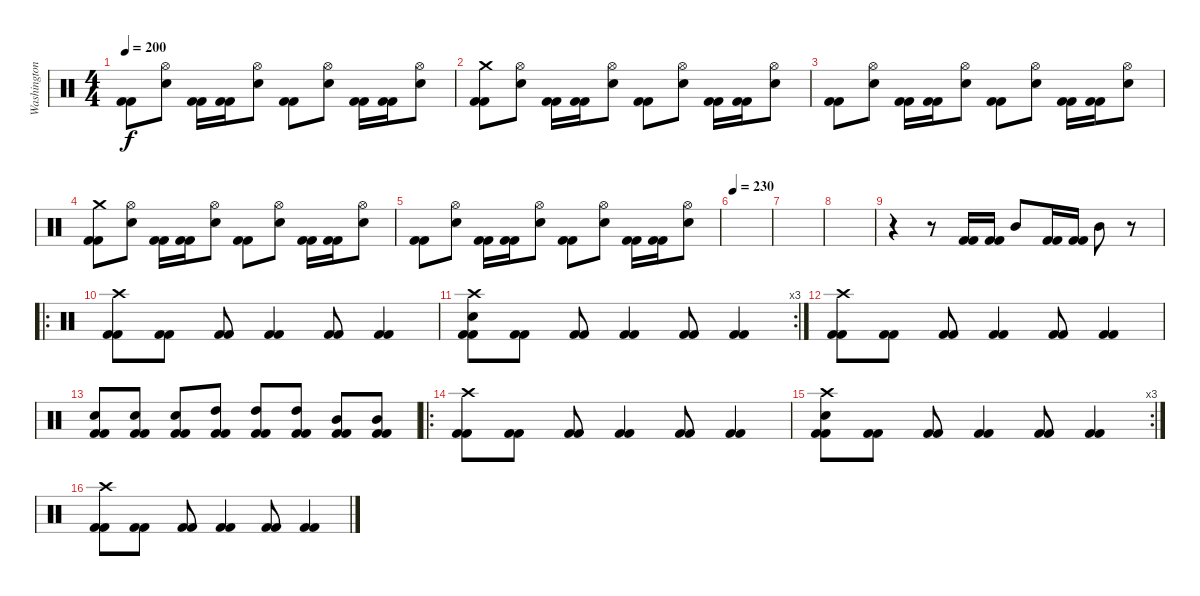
\track ("Washington" "Washington") {solo instrument percussion}
\staff {score}
\articulation defaults
\ts (4 4)
\tempo 200
\clef neutral
\ks c
("Kick (hit) 2" "Kick (hit) 2").8{dy f} ("Hi-Hat (open)" "Electric Snare (hit)").8 ("Kick (hit) 2" "Kick (hit) 2").16 ("Kick (hit) 2" "Kick (hit) 2").16 ("Hi-Hat (open)" "Electric Snare (hit)").8 ("Kick (hit) 2" "Kick (hit) 2").8 ("Hi-Hat (open)" "Electric Snare (hit)").8 ("Kick (hit) 2" "Kick (hit) 2").16 ("Kick (hit) 2" "Kick (hit) 2").16 ("Hi-Hat (open)" "Electric Snare (hit)").8 |
("Crash medium (hit)" "Kick (hit) 2" "Kick (hit) 2").8 ("Hi-Hat (open)" "Electric Snare (hit)").8 ("Kick (hit) 2" "Kick (hit) 2").16 ("Kick (hit) 2" "Kick (hit) 2").16 ("Hi-Hat (open)" "Electric Snare (hit)").8 ("Kick (hit) 2" "Kick (hit) 2").8 ("Hi-Hat (open)" "Electric Snare (hit)").8 ("Kick (hit) 2" "Kick (hit) 2").16 ("Kick (hit) 2" "Kick (hit) 2").16 ("Hi-Hat (open)" "Electric Snare (hit)").8 |
("Kick (hit) 2" "Kick (hit) 2").8 ("Hi-Hat (open)" "Electric Snare (hit)").8 ("Kick (hit) 2" "Kick (hit) 2").16 ("Kick (hit) 2" "Kick (hit) 2").16 ("Hi-Hat (open)" "Electric Snare (hit)").8 ("Kick (hit) 2" "Kick (hit) 2").8 ("Hi-Hat (open)" "Electric Snare (hit)").8 ("Kick (hit) 2" "Kick (hit) 2").16 ("Kick (hit) 2" "Kick (hit) 2").16 ("Hi-Hat (open)" "Electric Snare (hit)").8 |
("Crash medium (hit)" "Kick (hit) 2" "Kick (hit) 2").8 ("Hi-Hat (open)" "Electric Snare (hit)").8 ("Kick (hit) 2" "Kick (hit) 2").16 ("Kick (hit) 2" "Kick (hit) 2").16 ("Hi-Hat (open)" "Electric Snare (hit)").8 ("Kick (hit) 2" "Kick (hit) 2").8 ("Hi-Hat (open)" "Electric Snare (hit)").8 ("Kick (hit) 2" "Kick (hit) 2").16 ("Kick (hit) 2" "Kick (hit) 2").16 ("Hi-Hat (open)" "Electric Snare (hit)").8 |
("Kick (hit) 2" "Kick (hit) 2").8 ("Hi-Hat (open)" "Electric Snare (hit)").8 ("Kick (hit) 2" "Kick (hit) 2").16 ("Kick (hit) 2" "Kick (hit) 2").16 ("Hi-Hat (open)" "Electric Snare (hit)").8 ("Kick (hit) 2" "Kick (hit) 2").8 ("Hi-Hat (open)" "Electric Snare (hit)").8 ("Kick (hit) 2" "Kick (hit) 2").16 ("Kick (hit) 2" "Kick (hit) 2").16 ("Hi-Hat (open)" "Electric Snare (hit)").8 |
\tempo 230
|
|
|
r.4 r.8 ("Kick (hit) 2" "Kick (hit) 2").16 ("Kick (hit) 2" "Kick (hit) 2").16 "Mid Tom (hit)".8 ("Kick (hit) 2" "Kick (hit) 2").16 ("Kick (hit) 2" "Kick (hit) 2").16 "Mid Tom (hit)".8 r.8 |
\ro
("Crash high (hit)" "Kick (hit) 2" "Kick (hit) 2").8 ("Kick (hit) 2" "Kick (hit) 2").8 ("Kick (hit) 2" "Kick (hit) 2").8 ("Kick (hit) 2" "Kick (hit) 2").4 ("Kick (hit) 2" "Kick (hit) 2").8 ("Kick (hit) 2" "Kick (hit) 2").4 |
\rc 3
("Crash high (hit)" "Electric Snare (hit)" "Kick (hit) 2" "Kick (hit) 2").8 ("Kick (hit) 2" "Kick (hit) 2").8 ("Kick (hit) 2" "Kick (hit) 2").8 ("Kick (hit) 2" "Kick (hit) 2").4 ("Kick (hit) 2" "Kick (hit) 2").8 ("Kick (hit) 2" "Kick (hit) 2").4 |
("Crash high (hit)" "Kick (hit) 2" "Kick (hit) 2").8 ("Kick (hit) 2" "Kick (hit) 2").8 ("Kick (hit) 2" "Kick (hit) 2").8 ("Kick (hit) 2" "Kick (hit) 2").4 ("Kick (hit) 2" "Kick (hit) 2").8 ("Kick (hit) 2" "Kick (hit) 2").4 |
("Electric Snare (hit)" "Kick (hit) 2" "Kick (hit) 2").8 ("Electric Snare (hit)" "Kick (hit) 2" "Kick (hit) 2").8 ("Electric Snare (hit)" "Kick (hit) 2" "Kick (hit) 2").8 ("High Tom (hit)" "Kick (hit) 2" "Kick (hit) 2").8 ("High Tom (hit)" "Kick (hit) 2" "Kick (hit) 2").8 ("High Tom (hit)" "Kick (hit) 2" "Kick (hit) 2").8 ("Mid Tom (hit)" "Kick (hit) 2" "Kick (hit) 2").8 ("Mid Tom (hit)" "Kick (hit) 2" "Kick (hit) 2").8 |
\ro
("Crash high (hit)" "Kick (hit) 2" "Kick (hit) 2").8 ("Kick (hit) 2" "Kick (hit) 2").8 ("Kick (hit) 2" "Kick (hit) 2").8 ("Kick (hit) 2" "Kick (hit) 2").4 ("Kick (hit) 2" "Kick (hit) 2").8 ("Kick (hit) 2" "Kick (hit) 2").4 |
\rc 3
("Crash high (hit)" "Electric Snare (hit)" "Kick (hit) 2" "Kick (hit) 2").8 ("Kick (hit) 2" "Kick (hit) 2").8 ("Kick (hit) 2" "Kick (hit) 2").8 ("Kick (hit) 2" "Kick (hit) 2").4 ("Kick (hit) 2" "Kick (hit) 2").8 ("Kick (hit) 2" "Kick (hit) 2").4 |
("Crash high (hit)" "Kick (hit) 2" "Kick (hit) 2").8 ("Kick (hit) 2" "Kick (hit) 2").8 ("Kick (hit) 2" "Kick (hit) 2").8 ("Kick (hit) 2" "Kick (hit) 2").4 ("Kick (hit) 2" "Kick (hit) 2").8 ("Kick (hit) 2" "Kick (hit) 2").4
